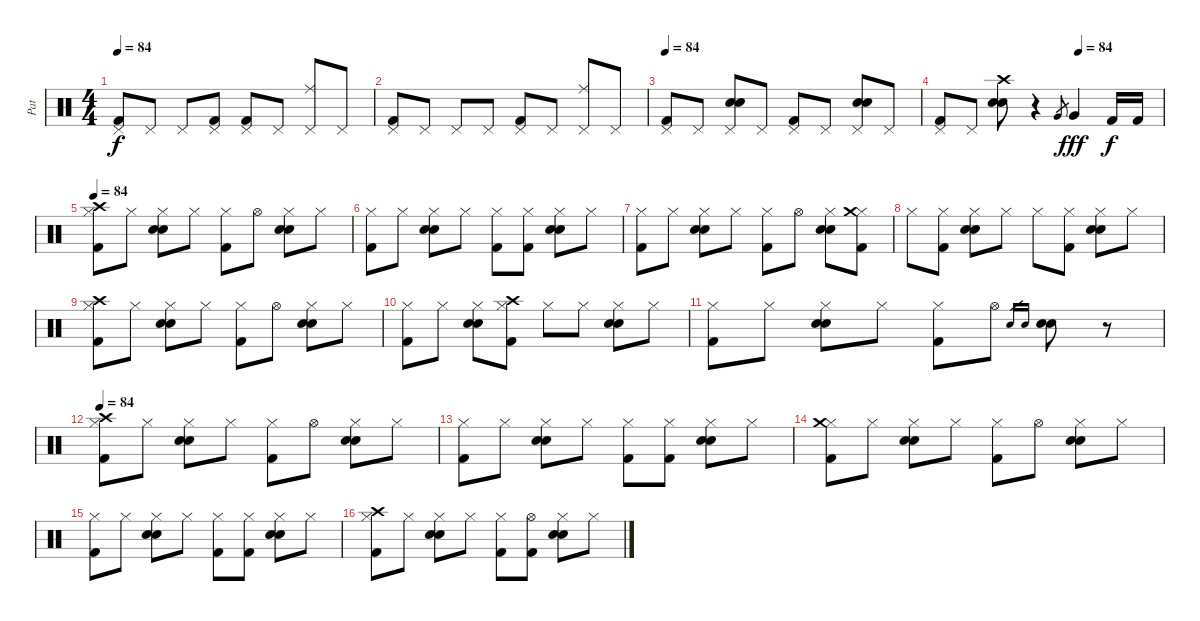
\track ("Pat" "Pat") {instrument percussion}
\staff {score}
\articulation defaults
\ts (4 4)
\tempo 84
\clef neutral
\ks c
("Pedal Hi-Hat (hit)"{t} "Kick (hit) 2").8{dy f} "Pedal Hi-Hat (hit)".8 "Pedal Hi-Hat (hit)".8 ("Pedal Hi-Hat (hit)" "Kick (hit) 2").8 ("Pedal Hi-Hat (hit)" "Kick (hit) 2").8 "Pedal Hi-Hat (hit)".8 ("Pedal Hi-Hat (hit)" "Ride (middle)").8 "Pedal Hi-Hat (hit)".8 |
("Pedal Hi-Hat (hit)" "Kick (hit) 2").8 "Pedal Hi-Hat (hit)".8 "Pedal Hi-Hat (hit)".8 "Pedal Hi-Hat (hit)".8 ("Pedal Hi-Hat (hit)" "Kick (hit) 2").8 "Pedal Hi-Hat (hit)".8 ("Pedal Hi-Hat (hit)" "Ride (middle)").8 "Pedal Hi-Hat (hit)".8 |
\tempo 84
("Pedal Hi-Hat (hit)" "Kick (hit) 2").8 "Pedal Hi-Hat (hit)".8 ("Pedal Hi-Hat (hit)" "Electric Snare (hit)" "Snare (hit) 2").8 "Pedal Hi-Hat (hit)".8 ("Pedal Hi-Hat (hit)" "Kick (hit) 2").8 "Pedal Hi-Hat (hit)".8 ("Pedal Hi-Hat (hit)" "Electric Snare (hit)" "Snare (hit) 2").8 "Pedal Hi-Hat (hit)".8 |
\tempo (84 0.625)
("Pedal Hi-Hat (hit)" "Kick (hit) 2").8 "Pedal Hi-Hat (hit)".8 ("Crash high (hit)" "Electric Snare (hit)" "Snare (hit) 2").8 r.4 "Very Low Tom (hit)".8{gr} "Very Low Tom (hit)".4{dy fff} "Kick (hit) 2".16{dy f} "Kick (hit) 2".16 |
\tempo 84
("Hi-Hat (closed)" "Crash high (hit)" "Kick (hit) 2").8 "Hi-Hat (closed)".8 ("Hi-Hat (closed)" "Electric Snare (hit)" "Snare (hit) 2").8 "Hi-Hat (closed)".8 ("Hi-Hat (closed)" "Kick (hit) 2").8 "Hi-Hat (open)".8 ("Hi-Hat (closed)" "Electric Snare (hit)" "Snare (hit) 2").8 "Hi-Hat (closed)".8 |
("Hi-Hat (closed)" "Kick (hit) 2").8 "Hi-Hat (closed)".8 ("Hi-Hat (closed)" "Electric Snare (hit)" "Snare (hit) 2").8 "Hi-Hat (closed)".8 ("Hi-Hat (closed)" "Kick (hit) 2").8 ("Hi-Hat (closed)" "Kick (hit) 2").8 ("Hi-Hat (closed)" "Electric Snare (hit)" "Snare (hit) 2").8 "Hi-Hat (closed)".8 |
("Hi-Hat (closed)" "Kick (hit) 2").8 "Hi-Hat (closed)".8 ("Hi-Hat (closed)" "Electric Snare (hit)" "Snare (hit) 2").8 "Hi-Hat (closed)".8 ("Hi-Hat (closed)" "Kick (hit) 2").8 "Hi-Hat (open)".8 ("Hi-Hat (closed)" "Electric Snare (hit)" "Snare (hit) 2").8 ("Hi-Hat (closed)" "Crash medium (hit)" "Kick (hit) 2").8 |
"Hi-Hat (closed)".8 ("Hi-Hat (closed)" "Kick (hit) 2").8 ("Hi-Hat (closed)" "Electric Snare (hit)" "Snare (hit) 2").8 "Hi-Hat (closed)".8 "Hi-Hat (closed)".8 ("Hi-Hat (closed)" "Kick (hit) 2").8 ("Hi-Hat (closed)" "Electric Snare (hit)" "Snare (hit) 2").8 "Hi-Hat (closed)".8 |
("Hi-Hat (closed)" "Crash high (hit)" "Kick (hit) 2").8 "Hi-Hat (closed)".8 ("Hi-Hat (closed)" "Electric Snare (hit)" "Snare (hit) 2").8 "Hi-Hat (closed)".8 ("Hi-Hat (closed)" "Kick (hit) 2").8 "Hi-Hat (open)".8 ("Hi-Hat (closed)" "Electric Snare (hit)" "Snare (hit) 2").8 "Hi-Hat (closed)".8 |
("Hi-Hat (closed)" "Kick (hit) 2").8 "Hi-Hat (closed)".8 ("Hi-Hat (closed)" "Electric Snare (hit)" "Snare (hit) 2").8 ("Hi-Hat (closed)" "Crash high (hit)" "Kick (hit) 2").8 "Hi-Hat (closed)".8 "Hi-Hat (closed)".8 ("Hi-Hat (closed)" "Electric Snare (hit)" "Snare (hit) 2").8 "Hi-Hat (closed)".8 |
("Hi-Hat (closed)" "Kick (hit) 2").8 "Hi-Hat (closed)".8 ("Hi-Hat (closed)" "Electric Snare (hit)" "Snare (hit) 2").8 "Hi-Hat (closed)".8 ("Hi-Hat (closed)" "Kick (hit) 2").8 "Hi-Hat (open)".8 "Electric Snare (hit)".16{gr} "Snare (hit) 2".16{gr} ("Electric Snare (hit)" "Snare (hit) 2").8 r.8 |
\tempo 84
("Hi-Hat (closed)" "Crash high (hit)" "Kick (hit) 2").8 "Hi-Hat (closed)".8 ("Hi-Hat (closed)" "Electric Snare (hit)" "Snare (hit) 2").8 "Hi-Hat (closed)".8 ("Hi-Hat (closed)" "Kick (hit) 2").8 "Hi-Hat (open)".8 ("Hi-Hat (closed)" "Electric Snare (hit)" "Snare (hit) 2").8 "Hi-Hat (closed)".8 |
("Hi-Hat (closed)" "Kick (hit) 2").8 "Hi-Hat (closed)".8 ("Hi-Hat (closed)" "Electric Snare (hit)" "Snare (hit) 2").8 "Hi-Hat (closed)".8 ("Hi-Hat (closed)" "Kick (hit) 2").8 ("Hi-Hat (closed)" "Kick (hit) 2").8 ("Hi-Hat (closed)" "Electric Snare (hit)" "Snare (hit) 2").8 "Hi-Hat (closed)".8 |
("Hi-Hat (closed)" "Crash medium (hit)" "Kick (hit) 2").8 "Hi-Hat (closed)".8 ("Hi-Hat (closed)" "Electric Snare (hit)" "Snare (hit) 2").8 "Hi-Hat (closed)".8 ("Hi-Hat (closed)" "Kick (hit) 2").8 "Hi-Hat (open)".8 ("Hi-Hat (closed)" "Electric Snare (hit)" "Snare (hit) 2").8 "Hi-Hat (closed)".8 |
("Hi-Hat (closed)" "Kick (hit) 2").8 "Hi-Hat (closed)".8 ("Hi-Hat (closed)" "Electric Snare (hit)" "Snare (hit) 2").8 "Hi-Hat (closed)".8 ("Hi-Hat (closed)" "Kick (hit) 2").8 ("Hi-Hat (closed)" "Kick (hit) 2").8 ("Hi-Hat (closed)" "Electric Snare (hit)" "Snare (hit) 2").8 "Hi-Hat (closed)".8 |
("Hi-Hat (closed)" "Crash high (hit)" "Kick (hit) 2").8 "Hi-Hat (closed)".8 ("Hi-Hat (closed)" "Electric Snare (hit)" "Snare (hit) 2").8 "Hi-Hat (closed)".8 ("Hi-Hat (closed)" "Kick (hit) 2").8 ("Hi-Hat (open)" "Kick (hit) 2").8 ("Hi-Hat (closed)" "Electric Snare (hit)" "Snare (hit) 2").8 "Hi-Hat (closed)".8
